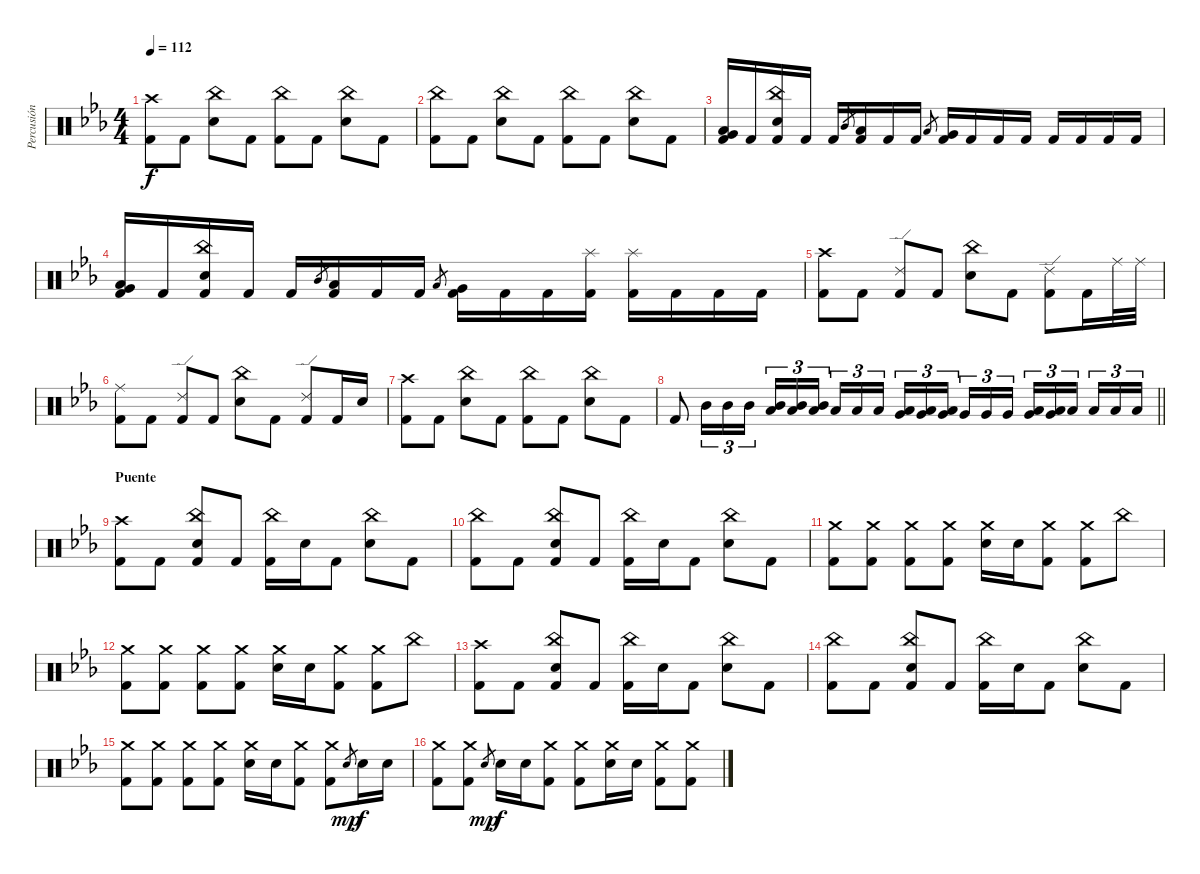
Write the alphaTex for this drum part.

\track ("Percusión" "Percusión") {instrument percussion}
\staff {score}
\articulation defaults
\ts (4 4)
\tempo 112
\clef neutral
\ks cminor
("Crash high (hit)" "Kick (hit) 2").8{dy f} "Kick (hit) 2".8 ("China (hit)" "Snare (hit) 2").8 "Kick (hit) 2".8 ("China (hit)" "Kick (hit) 2").8 "Kick (hit) 2".8 ("China (hit)" "Snare (hit) 2").8 "Kick (hit) 2".8 |
("China (hit)" "Kick (hit) 2").8 "Kick (hit) 2".8 ("China (hit)" "Snare (hit) 2").8 "Kick (hit) 2".8 ("China (hit)" "Kick (hit) 2").8 "Kick (hit) 2".8 ("China (hit)" "Snare (hit) 2").8 "Kick (hit) 2".8 |
("Low Floor Tom (hit)" "Very Low Tom (hit)" "Kick (hit) 2").16 "Kick (hit) 2".16 ("China (hit)" "Snare (hit) 2" "Kick (hit) 2").16 "Kick (hit) 2".16 "Kick (hit) 2".16 "Mid Tom (hit)".8{gr} ("Low Tom (hit)" "Kick (hit) 2").16 "Kick (hit) 2".16 "Kick (hit) 2".16 "Low Tom (hit)".8{gr} ("Very Low Tom (hit)" "Kick (hit) 2").16 "Kick (hit) 2".16 "Kick (hit) 2".16 "Kick (hit) 2".16 "Kick (hit) 2".16 "Kick (hit) 2".16 "Kick (hit) 2".16 "Kick (hit) 2".16 |
("Low Floor Tom (hit)" "Very Low Tom (hit)" "Kick (hit) 2").16 "Kick (hit) 2".16 ("China (hit)" "Snare (hit) 2" "Kick (hit) 2").16 "Kick (hit) 2".16 "Kick (hit) 2".16 "Mid Tom (hit)".8{gr} ("Low Tom (hit)" "Kick (hit) 2").16 "Kick (hit) 2".16 "Kick (hit) 2".16 "Low Tom (hit)".8{gr} ("Very Low Tom (hit)" "Kick (hit) 2").16 "Kick (hit) 2".16 "Kick (hit) 2".16 ("Splash (hit)" "Kick (hit) 2").16 ("Splash (hit)" "Kick (hit) 2").16 "Kick (hit) 2".16 "Kick (hit) 2".16 "Kick (hit) 2".16 |
("Crash high (hit)" "Kick (hit) 2").8 "Kick (hit) 2".8 ("Ride (edge) 2" "Kick (hit) 2").8 "Kick (hit) 2".8 ("China (hit)" "Snare (hit) 2").8 "Kick (hit) 2".8 ("Ride (edge) 2" "Kick (hit) 2").8 "Kick (hit) 2".16 "Ride (middle)".32 "Ride (middle)".32 |
("Ride (middle)" "Kick (hit) 2").8 "Kick (hit) 2".8 ("Ride (edge) 2" "Kick (hit) 2").8 "Kick (hit) 2".8 ("China (hit)" "Snare (hit) 2").8 "Kick (hit) 2".8 ("Ride (edge) 2" "Kick (hit) 2").8 "Kick (hit) 2".16 "Snare (hit) 2".16 |
("Crash high (hit)" "Kick (hit) 2").8 "Kick (hit) 2".8 ("China (hit)" "Snare (hit) 2").8 "Kick (hit) 2".8 ("China (hit)" "Kick (hit) 2").8 "Kick (hit) 2".8 ("China (hit)" "Snare (hit) 2").8 "Kick (hit) 2".8 |
\barLineRight lightlight "Kick (hit) 2".8 "Mid Tom (hit)".16{tu (3 2)} "Mid Tom (hit)".16{tu (3 2)} "Mid Tom (hit)".16{tu (3 2)}
("Mid Tom (hit)" "Low Tom (hit)").16{tu (3 2)} ("Mid Tom (hit)" "Low Tom (hit)").16{tu (3 2)} ("Mid Tom (hit)" "Low Tom (hit)").16{tu (3 2) beam splitsecondary} "Low Tom (hit)".16{tu (3 2)} "Low Tom (hit)".16{tu (3 2)} "Low Tom (hit)".16{tu (3 2)} ("Low Tom (hit)" "Very Low Tom (hit)").16{tu (3 2)} ("Low Tom (hit)" "Very Low Tom (hit)").16{tu (3 2)} ("Low Tom (hit)" "Very Low Tom (hit)").16{tu (3 2) beam splitsecondary} "Very Low Tom (hit)".16{tu (3 2)} "Very Low Tom (hit)".16{tu (3 2)} "Very Low Tom (hit)".16{tu (3 2)} ("Very Low Tom (hit)" "Low Floor Tom (hit)").16{tu (3 2)} ("Very Low Tom (hit)" "Low Floor Tom (hit)").16{tu (3 2)} "Low Floor Tom (hit)".16{tu (3 2) beam splitsecondary} "Low Floor Tom (hit)".16{tu (3 2)} "Low Floor Tom (hit)".16{tu (3 2)} "Low Floor Tom (hit)".16{tu (3 2)} |
\section ("" "Puente")
("Crash high (hit)" "Kick (hit) 2").8 "Kick (hit) 2".8 ("China (hit)" "Snare (hit) 2" "Kick (hit) 2").8 "Kick (hit) 2".8 ("China (hit)" "Kick (hit) 2").16 "Snare (hit) 2".16 "Kick (hit) 2".8 ("China (hit)" "Snare (hit) 2").8 "Kick (hit) 2".8 |
("China (hit)" "Kick (hit) 2").8 "Kick (hit) 2".8 ("China (hit)" "Snare (hit) 2" "Kick (hit) 2").8 "Kick (hit) 2".8 ("China (hit)" "Kick (hit) 2").16 "Snare (hit) 2".16 "Kick (hit) 2".8 ("China (hit)" "Snare (hit) 2").8 "Kick (hit) 2".8 |
("Crash medium (hit)" "Kick (hit) 2").8 ("Crash medium (hit)" "Kick (hit) 2").8 ("Crash medium (hit)" "Kick (hit) 2").8 ("Crash medium (hit)" "Kick (hit) 2").8 ("Crash medium (hit)" "Snare (hit) 2").16 "Snare (hit) 2".16 ("Crash medium (hit)" "Kick (hit) 2").8 ("Crash medium (hit)" "Kick (hit) 2").8 "China (hit)".8 |
("Crash medium (hit)" "Kick (hit) 2").8 ("Crash medium (hit)" "Kick (hit) 2").8 ("Crash medium (hit)" "Kick (hit) 2").8 ("Crash medium (hit)" "Kick (hit) 2").8 ("Crash medium (hit)" "Snare (hit) 2").16 "Snare (hit) 2".16 ("Crash medium (hit)" "Kick (hit) 2").8 ("Crash medium (hit)" "Kick (hit) 2").8 "China (hit)".8 |
("Crash high (hit)" "Kick (hit) 2").8 "Kick (hit) 2".8 ("China (hit)" "Snare (hit) 2" "Kick (hit) 2").8 "Kick (hit) 2".8 ("China (hit)" "Kick (hit) 2").16 "Snare (hit) 2".16 "Kick (hit) 2".8 ("China (hit)" "Snare (hit) 2").8 "Kick (hit) 2".8 |
("China (hit)" "Kick (hit) 2").8 "Kick (hit) 2".8 ("China (hit)" "Snare (hit) 2" "Kick (hit) 2").8 "Kick (hit) 2".8 ("China (hit)" "Kick (hit) 2").16 "Snare (hit) 2".16 "Kick (hit) 2".8 ("China (hit)" "Snare (hit) 2").8 "Kick (hit) 2".8 |
("Crash medium (hit)" "Kick (hit) 2").8 ("Crash medium (hit)" "Kick (hit) 2").8 ("Crash medium (hit)" "Kick (hit) 2").8 ("Crash medium (hit)" "Kick (hit) 2").8 ("Crash medium (hit)" "Snare (hit) 2").16 "Snare (hit) 2".16 ("Crash medium (hit)" "Kick (hit) 2").8 ("Crash medium (hit)" "Kick (hit) 2").8 "Snare (hit) 2".8{gr dy mp} "Snare (hit) 2".16{dy f} "Snare (hit) 2".16 |
("Crash medium (hit)" "Kick (hit) 2").8 ("Crash medium (hit)" "Kick (hit) 2").8 "Snare (hit) 2".8{gr dy mp} "Snare (hit) 2".16{dy f} "Snare (hit) 2".16 ("Crash medium (hit)" "Kick (hit) 2").8 ("Crash medium (hit)" "Kick (hit) 2").8 ("Crash medium (hit)" "Snare (hit) 2").16 "Snare (hit) 2".16 ("Crash medium (hit)" "Kick (hit) 2").8 ("Crash medium (hit)" "Kick (hit) 2").8
